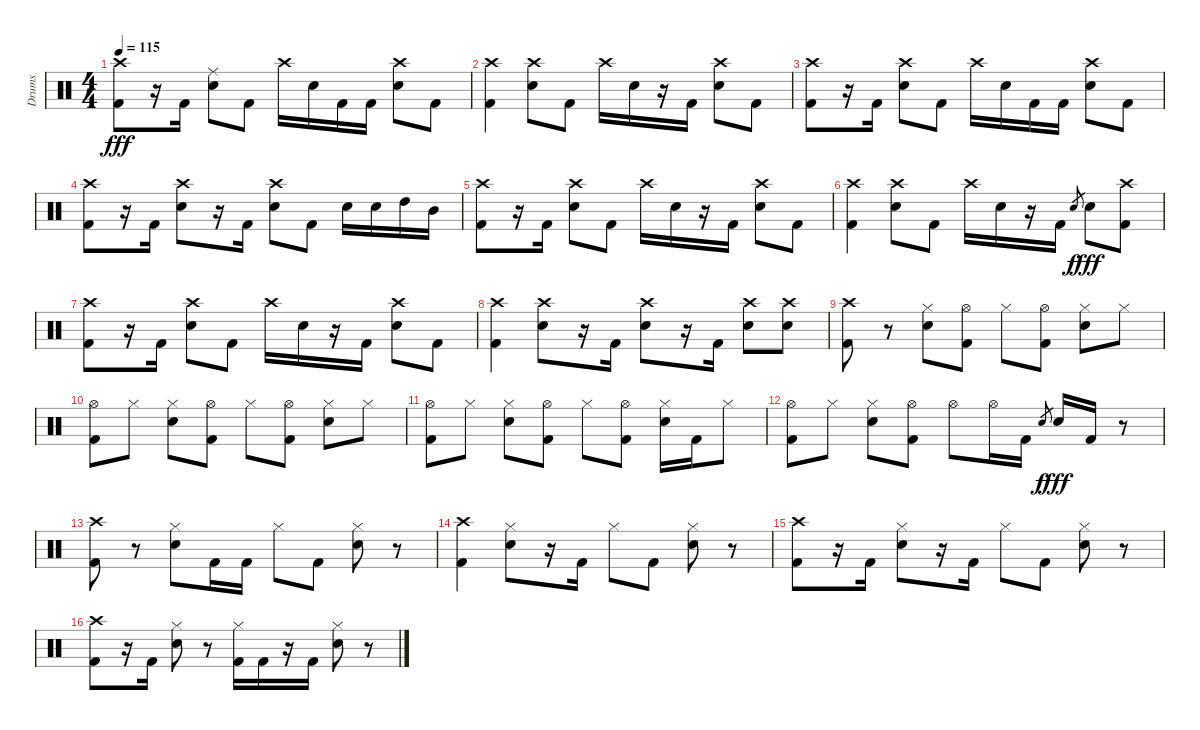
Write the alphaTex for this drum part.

\track ("Drums" "Drums") {instrument percussion}
\staff {score}
\articulation defaults
\ts (4 4)
\tempo 115
\clef neutral
\ks c
("Crash high (hit)" "Kick (hit) 2").8{dy fff} r.16 "Kick (hit) 2".16 ("Ride (middle)" "Electric Snare (hit)").8 "Kick (hit) 2".8 "Crash high (hit)".16 "Electric Snare (hit)".16 "Kick (hit) 2".16 "Kick (hit) 2".16 ("Crash high (hit)" "Electric Snare (hit)").8 "Kick (hit) 2".8 |
("Crash high (hit)" "Kick (hit) 2").4 ("Crash high (hit)" "Electric Snare (hit)").8 "Kick (hit) 2".8 "Crash high (hit)".16 "Electric Snare (hit)".16 r.16 "Kick (hit) 2".16 ("Crash high (hit)" "Electric Snare (hit)").8 "Kick (hit) 2".8 |
("Crash high (hit)" "Kick (hit) 2").8 r.16 "Kick (hit) 2".16 ("Crash high (hit)" "Electric Snare (hit)").8 "Kick (hit) 2".8 "Crash high (hit)".16 "Electric Snare (hit)".16 "Kick (hit) 2".16 "Kick (hit) 2".16 ("Crash high (hit)" "Electric Snare (hit)").8 "Kick (hit) 2".8 |
("Crash high (hit)" "Kick (hit) 2").8 r.16 "Kick (hit) 2".16 ("Crash high (hit)" "Electric Snare (hit)").8 r.16 "Kick (hit) 2".16 ("Crash high (hit)" "Electric Snare (hit)").8 "Kick (hit) 2".8 "Electric Snare (hit)".16 "Electric Snare (hit)".16 "High Tom (hit)".16 "Mid Tom (hit)".16 |
("Crash high (hit)" "Kick (hit) 2").8 r.16 "Kick (hit) 2".16 ("Crash high (hit)" "Electric Snare (hit)").8 "Kick (hit) 2".8 "Crash high (hit)".16 "Electric Snare (hit)".16 r.16 "Kick (hit) 2".16 ("Crash high (hit)" "Electric Snare (hit)").8 "Kick (hit) 2".8 |
("Crash high (hit)" "Kick (hit) 2").4 ("Crash high (hit)" "Electric Snare (hit)").8 "Kick (hit) 2".8 "Crash high (hit)".16 "Electric Snare (hit)".16 r.16 "Kick (hit) 2".16 "Electric Snare (hit)".8{gr dy f} "Electric Snare (hit)".8{dy fff} ("Crash high (hit)" "Kick (hit) 2").8 |
("Crash high (hit)" "Kick (hit) 2").8 r.16 "Kick (hit) 2".16 ("Crash high (hit)" "Electric Snare (hit)").8 "Kick (hit) 2".8 "Crash high (hit)".16 "Electric Snare (hit)".16 r.16 "Kick (hit) 2".16 ("Crash high (hit)" "Electric Snare (hit)").8 "Kick (hit) 2".8 |
("Crash high (hit)" "Kick (hit) 2").4 ("Crash high (hit)" "Electric Snare (hit)").8 r.16 "Kick (hit) 2".16 ("Crash high (hit)" "Electric Snare (hit)").8 r.16 "Kick (hit) 2".16 ("Crash high (hit)" "Electric Snare (hit)").8 ("Crash high (hit)" "Electric Snare (hit)").8 |
("Crash high (hit)" "Kick (hit) 2").8 r.8 ("Hi-Hat (closed)" "Electric Snare (hit)").8 ("Hi-Hat (open)" "Kick (hit) 2").8 "Hi-Hat (closed)".8 ("Hi-Hat (open)" "Kick (hit) 2").8 ("Hi-Hat (closed)" "Electric Snare (hit)").8 "Hi-Hat (closed)".8 |
("Hi-Hat (open)" "Kick (hit) 2").8 "Hi-Hat (closed)".8 ("Hi-Hat (closed)" "Electric Snare (hit)").8 ("Hi-Hat (open)" "Kick (hit) 2").8 "Hi-Hat (closed)".8 ("Hi-Hat (open)" "Kick (hit) 2").8 ("Hi-Hat (closed)" "Electric Snare (hit)").8 "Hi-Hat (closed)".8 |
("Hi-Hat (open)" "Kick (hit) 2").8 "Hi-Hat (closed)".8 ("Hi-Hat (closed)" "Electric Snare (hit)").8 ("Hi-Hat (open)" "Kick (hit) 2").8 "Hi-Hat (closed)".8 ("Hi-Hat (open)" "Kick (hit) 2").8 ("Hi-Hat (closed)" "Electric Snare (hit)").16 "Kick (hit) 2".16 "Hi-Hat (closed)".8 |
("Hi-Hat (open)" "Kick (hit) 2").8 "Hi-Hat (closed)".8 ("Hi-Hat (closed)" "Electric Snare (hit)").8 ("Hi-Hat (open)" "Kick (hit) 2").8 "Hi-Hat (open)".8 "Hi-Hat (open)".16 "Kick (hit) 2".16 "Electric Snare (hit)".8{gr dy f} "Electric Snare (hit)".16{dy fff} "Kick (hit) 2".16 r.8 |
("Crash high (hit)" "Kick (hit) 2").8 r.8 ("Hi-Hat (closed)" "Electric Snare (hit)").8 "Kick (hit) 2".16 "Kick (hit) 2".16 "Hi-Hat (closed)".8 "Kick (hit) 2".8 ("Hi-Hat (closed)" "Electric Snare (hit)").8 r.8 |
("Crash high (hit)" "Kick (hit) 2").4 ("Hi-Hat (closed)" "Electric Snare (hit)").8 r.16 "Kick (hit) 2".16 "Hi-Hat (closed)".8 "Kick (hit) 2".8 ("Hi-Hat (closed)" "Electric Snare (hit)").8 r.8 |
("Crash high (hit)" "Kick (hit) 2").8 r.16 "Kick (hit) 2".16 ("Hi-Hat (closed)" "Electric Snare (hit)").8 r.16 "Kick (hit) 2".16 "Hi-Hat (closed)".8 "Kick (hit) 2".8 ("Hi-Hat (closed)" "Electric Snare (hit)").8 r.8 |
("Crash high (hit)" "Kick (hit) 2").8 r.16 "Kick (hit) 2".16 ("Hi-Hat (closed)" "Electric Snare (hit)").8 r.8 ("Hi-Hat (closed)" "Kick (hit) 2").16 "Kick (hit) 2".16 r.16 "Kick (hit) 2".16 ("Hi-Hat (closed)" "Electric Snare (hit)").8 r.8
